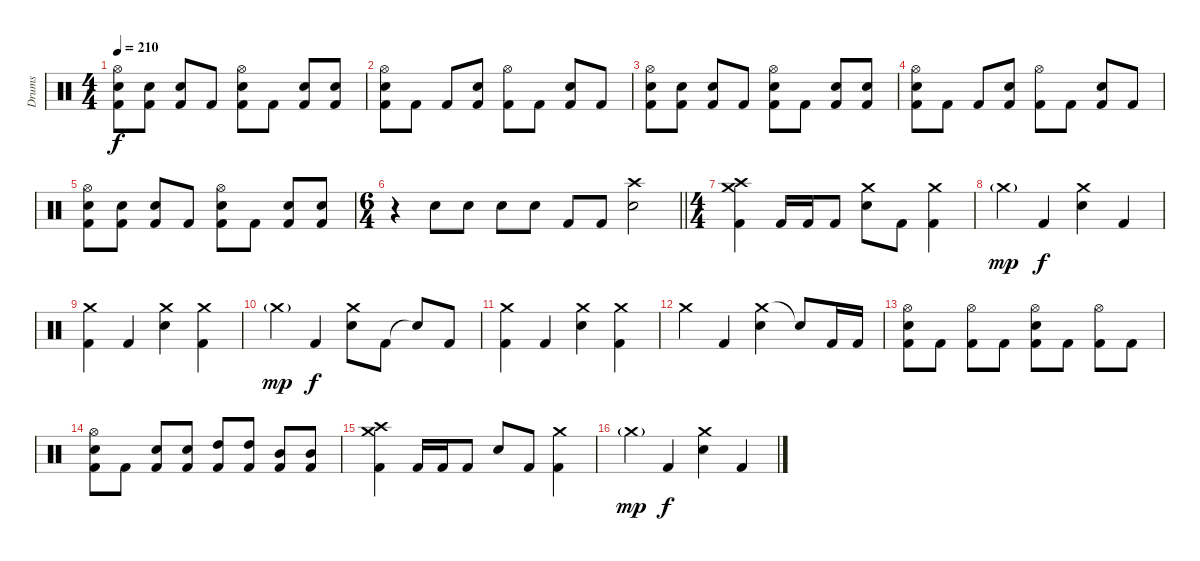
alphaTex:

\track ("Drums" "Drums") {instrument percussion}
\staff {score}
\articulation defaults
\ts (4 4)
\tempo 210
\clef neutral
\ks c
("Hi-Hat (open)" "Electric Snare (hit)" "Kick (hit) 2").8{dy f} ("Electric Snare (hit)" "Kick (hit) 2").8 ("Electric Snare (hit)" "Kick (hit) 2").8 "Kick (hit) 2".8 ("Hi-Hat (open)" "Electric Snare (hit)" "Kick (hit) 2").8 "Kick (hit) 2".8 ("Electric Snare (hit)" "Kick (hit) 2").8 ("Electric Snare (hit)" "Kick (hit) 2").8 |
("Hi-Hat (open)" "Electric Snare (hit)" "Kick (hit) 2").8 "Kick (hit) 2".8 "Kick (hit) 2".8 ("Electric Snare (hit)" "Kick (hit) 2").8 ("Hi-Hat (open)" "Kick (hit) 2").8 "Kick (hit) 2".8 ("Electric Snare (hit)" "Kick (hit) 2").8 "Kick (hit) 2".8 |
("Hi-Hat (open)" "Electric Snare (hit)" "Kick (hit) 2").8 ("Electric Snare (hit)" "Kick (hit) 2").8 ("Electric Snare (hit)" "Kick (hit) 2").8 "Kick (hit) 2".8 ("Hi-Hat (open)" "Electric Snare (hit)" "Kick (hit) 2").8 "Kick (hit) 2".8 ("Electric Snare (hit)" "Kick (hit) 2").8 ("Electric Snare (hit)" "Kick (hit) 2").8 |
("Hi-Hat (open)" "Electric Snare (hit)" "Kick (hit) 2").8 "Kick (hit) 2".8 "Kick (hit) 2".8 ("Electric Snare (hit)" "Kick (hit) 2").8 ("Hi-Hat (open)" "Kick (hit) 2").8 "Kick (hit) 2".8 ("Electric Snare (hit)" "Kick (hit) 2").8 "Kick (hit) 2".8 |
("Hi-Hat (open)" "Electric Snare (hit)" "Kick (hit) 2").8 ("Electric Snare (hit)" "Kick (hit) 2").8 ("Electric Snare (hit)" "Kick (hit) 2").8 "Kick (hit) 2".8 ("Hi-Hat (open)" "Electric Snare (hit)" "Kick (hit) 2").8 "Kick (hit) 2".8 ("Electric Snare (hit)" "Kick (hit) 2").8 ("Electric Snare (hit)" "Kick (hit) 2").8 |
\ts (6 4)
\barLineRight lightlight
r.4 "Electric Snare (hit)".8 "Electric Snare (hit)".8 "Electric Snare (hit)".8 "Electric Snare (hit)".8 "Kick (hit) 2".8 "Kick (hit) 2".8 ("Crash high (hit)" "Electric Snare (hit)").2 |
\ts (4 4)
("Crash high (hit)" "Crash medium (hit)" "Kick (hit) 2").4 "Kick (hit) 2".16 "Kick (hit) 2".16 "Kick (hit) 2".8 ("Crash medium (hit)" "Electric Snare (hit)").8 "Kick (hit) 2".8 ("Crash medium (hit)" "Kick (hit) 2").4 |
"Crash medium (hit)"{g}.4{dy mp} "Kick (hit) 2".4{dy f} ("Crash medium (hit)" "Electric Snare (hit)").4 "Kick (hit) 2".4 |
("Crash medium (hit)" "Kick (hit) 2").4 "Kick (hit) 2".4 ("Crash medium (hit)" "Electric Snare (hit)").4 ("Crash medium (hit)" "Kick (hit) 2").4 |
"Crash medium (hit)"{g}.4{dy mp} "Kick (hit) 2".4{dy f} ("Crash medium (hit)" "Electric Snare (hit)").8 "Kick (hit) 2".8 "Snare (hit)"{t}.8 "Kick (hit) 2".8 |
("Crash medium (hit)" "Kick (hit) 2").4 "Kick (hit) 2".4 ("Crash medium (hit)" "Electric Snare (hit)").4 ("Crash medium (hit)" "Kick (hit) 2").4 |
"Crash medium (hit)".4 "Kick (hit) 2".4 ("Crash medium (hit)" "Electric Snare (hit)").4 "Snare (hit)"{t}.8 "Kick (hit) 2".16 "Kick (hit) 2".16 |
("Hi-Hat (open)" "Electric Snare (hit)" "Kick (hit) 2").8 "Kick (hit) 2".8 ("Hi-Hat (open)" "Kick (hit) 2").8 "Kick (hit) 2".8 ("Hi-Hat (open)" "Electric Snare (hit)" "Kick (hit) 2").8 "Kick (hit) 2".8 ("Hi-Hat (open)" "Kick (hit) 2").8 "Kick (hit) 2".8 |
("Hi-Hat (open)" "Electric Snare (hit)" "Kick (hit) 2").8 "Kick (hit) 2".8 ("Electric Snare (hit)" "Kick (hit) 2").8 ("Electric Snare (hit)" "Kick (hit) 2").8 ("High Tom (hit)" "Kick (hit) 2").8 ("High Tom (hit)" "Kick (hit) 2").8 ("Mid Tom (hit)" "Kick (hit) 2").8 ("Mid Tom (hit)" "Kick (hit) 2").8 |
("Crash high (hit)" "Crash medium (hit)" "Kick (hit) 2").4 "Kick (hit) 2".16 "Kick (hit) 2".16 "Kick (hit) 2".8 "Electric Snare (hit)".8 "Kick (hit) 2".8 ("Crash medium (hit)" "Kick (hit) 2").4 |
"Crash medium (hit)"{g}.4{dy mp} "Kick (hit) 2".4{dy f} ("Crash medium (hit)" "Electric Snare (hit)").4 "Kick (hit) 2".4
